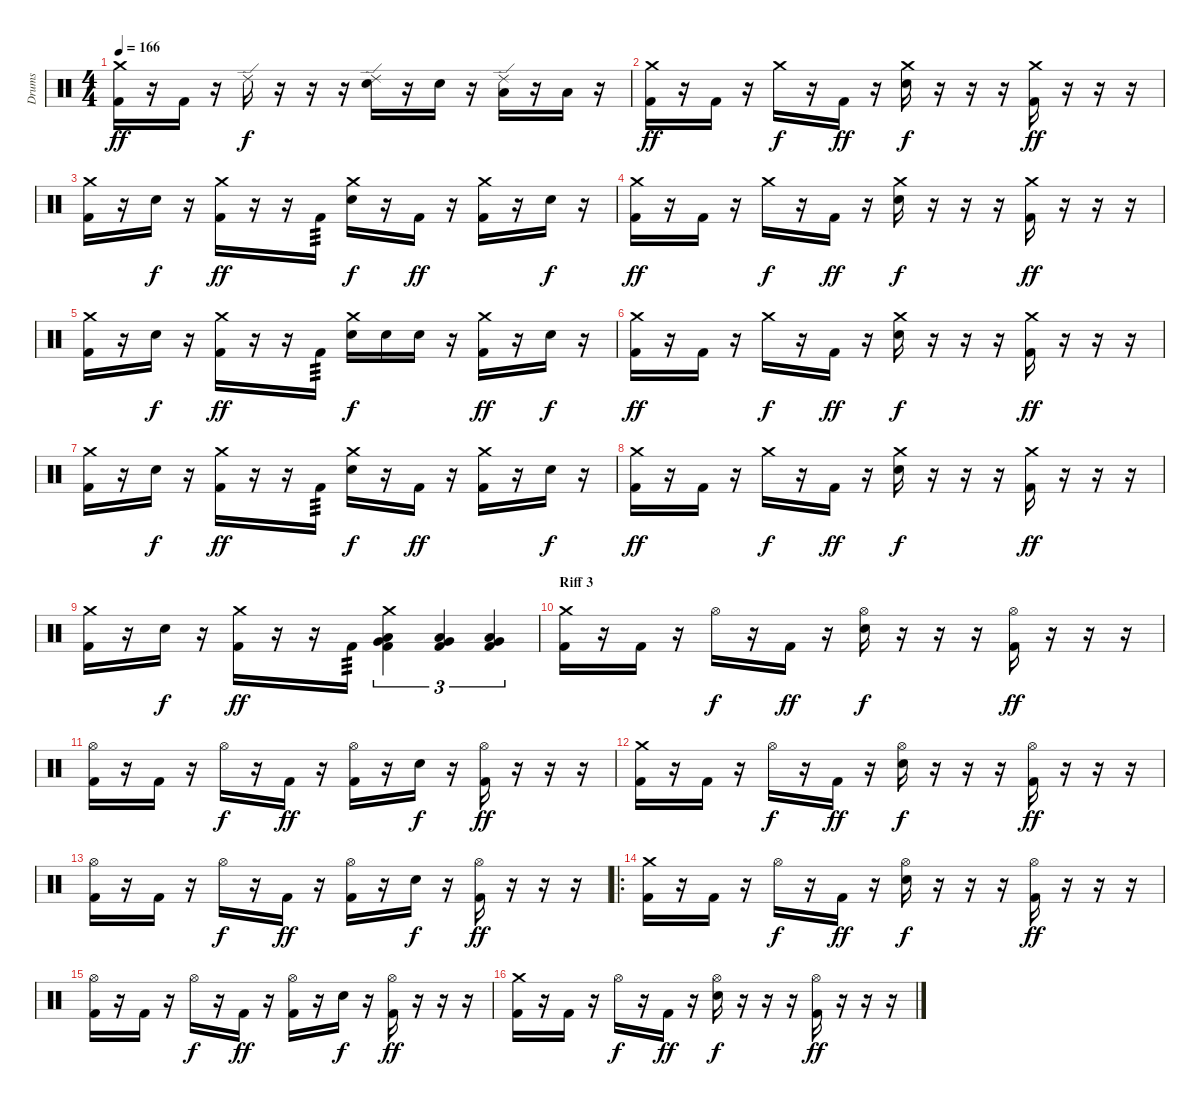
\track ("Drums" "Drums") {instrument percussion}
\staff {score}
\articulation defaults
\ts (4 4)
\tempo 166
\clef neutral
\ks c
("Crash medium (hit)" "Kick (hit) 2").16{dy ff} r.16 "Kick (hit) 2".16 r.16 "Ride (edge) 2".16{dy f} r.16 r.16 r.16 ("Ride (edge) 2" "Electric Snare (hit)").16 r.16 "Electric Snare (hit)".16 r.16 ("Ride (edge) 2" "Low Tom (hit)").16 r.16 "Low Tom (hit)".16 r.16 |
("Crash medium (hit)" "Kick (hit) 2").16{dy ff} r.16 "Kick (hit) 2".16 r.16 "Crash medium (hit)".16{dy f} r.16 "Kick (hit) 2".16{dy ff} r.16 ("Crash medium (hit)" "Electric Snare (hit)").16{dy f} r.16 r.16 r.16 ("Crash medium (hit)" "Kick (hit) 2").16{dy ff} r.16 r.16 r.16 |
("Crash medium (hit)" "Kick (hit) 2").16 r.16 "Electric Snare (hit)".16{dy f} r.16 ("Crash medium (hit)" "Kick (hit) 2").16{dy ff} r.16 r.16 "Kick (hit) 2".16{tp 3} ("Crash medium (hit)" "Electric Snare (hit)").16{dy f} r.16 "Kick (hit) 2".16{dy ff} r.16 ("Crash medium (hit)" "Kick (hit) 2").16 r.16 "Electric Snare (hit)".16{dy f} r.16 |
("Crash medium (hit)" "Kick (hit) 2").16{dy ff} r.16 "Kick (hit) 2".16 r.16 "Crash medium (hit)".16{dy f} r.16 "Kick (hit) 2".16{dy ff} r.16 ("Crash medium (hit)" "Electric Snare (hit)").16{dy f} r.16 r.16 r.16 ("Crash medium (hit)" "Kick (hit) 2").16{dy ff} r.16 r.16 r.16 |
("Crash medium (hit)" "Kick (hit) 2").16 r.16 "Electric Snare (hit)".16{dy f} r.16 ("Crash medium (hit)" "Kick (hit) 2").16{dy ff} r.16 r.16 "Kick (hit) 2".16{tp 3} ("Crash medium (hit)" "Electric Snare (hit)").16{dy f} "Electric Snare (hit)".16 "Electric Snare (hit)".16 r.16 ("Crash medium (hit)" "Kick (hit) 2").16{dy ff} r.16 "Electric Snare (hit)".16{dy f} r.16 |
("Crash medium (hit)" "Kick (hit) 2").16{dy ff} r.16 "Kick (hit) 2".16 r.16 "Crash medium (hit)".16{dy f} r.16 "Kick (hit) 2".16{dy ff} r.16 ("Crash medium (hit)" "Electric Snare (hit)").16{dy f} r.16 r.16 r.16 ("Crash medium (hit)" "Kick (hit) 2").16{dy ff} r.16 r.16 r.16 |
("Crash medium (hit)" "Kick (hit) 2").16 r.16 "Electric Snare (hit)".16{dy f} r.16 ("Crash medium (hit)" "Kick (hit) 2").16{dy ff} r.16 r.16 "Kick (hit) 2".16{tp 3} ("Crash medium (hit)" "Electric Snare (hit)").16{dy f} r.16 "Kick (hit) 2".16{dy ff} r.16 ("Crash medium (hit)" "Kick (hit) 2").16 r.16 "Electric Snare (hit)".16{dy f} r.16 |
("Crash medium (hit)" "Kick (hit) 2").16{dy ff} r.16 "Kick (hit) 2".16 r.16 "Crash medium (hit)".16{dy f} r.16 "Kick (hit) 2".16{dy ff} r.16 ("Crash medium (hit)" "Electric Snare (hit)").16{dy f} r.16 r.16 r.16 ("Crash medium (hit)" "Kick (hit) 2").16{dy ff} r.16 r.16 r.16 |
("Crash medium (hit)" "Kick (hit) 2").16 r.16 "Electric Snare (hit)".16{dy f} r.16 ("Crash medium (hit)" "Kick (hit) 2").16{dy ff} r.16 r.16 "Kick (hit) 2".16{tp 3} ("Crash medium (hit)" "Low Floor Tom (hit)" "Very Low Tom (hit)" "Kick (hit) 2").4{tu (3 2)} ("Low Floor Tom (hit)" "Very Low Tom (hit)" "Kick (hit) 2").4{tu (3 2)} ("Low Floor Tom (hit)" "Very Low Tom (hit)" "Kick (hit) 2").4{tu (3 2)} |
\section ("" "Riff 3")
("Crash medium (hit)" "Kick (hit) 2").16 r.16 "Kick (hit) 2".16 r.16 "Hi-Hat (open)".16{dy f} r.16 "Kick (hit) 2".16{dy ff} r.16 ("Hi-Hat (open)" "Electric Snare (hit)").16{dy f} r.16 r.16 r.16 ("Hi-Hat (open)" "Kick (hit) 2").16{dy ff} r.16 r.16 r.16 |
("Hi-Hat (open)" "Kick (hit) 2").16 r.16 "Kick (hit) 2".16 r.16 "Hi-Hat (open)".16{dy f} r.16 "Kick (hit) 2".16{dy ff} r.16 ("Hi-Hat (open)" "Kick (hit) 2").16 r.16 "Electric Snare (hit)".16{dy f} r.16 ("Hi-Hat (open)" "Kick (hit) 2").16{dy ff} r.16 r.16 r.16 |
("Crash medium (hit)" "Kick (hit) 2").16 r.16 "Kick (hit) 2".16 r.16 "Hi-Hat (open)".16{dy f} r.16 "Kick (hit) 2".16{dy ff} r.16 ("Hi-Hat (open)" "Electric Snare (hit)").16{dy f} r.16 r.16 r.16 ("Hi-Hat (open)" "Kick (hit) 2").16{dy ff} r.16 r.16 r.16 |
("Hi-Hat (open)" "Kick (hit) 2").16 r.16 "Kick (hit) 2".16 r.16 "Hi-Hat (open)".16{dy f} r.16 "Kick (hit) 2".16{dy ff} r.16 ("Hi-Hat (open)" "Kick (hit) 2").16 r.16 "Electric Snare (hit)".16{dy f} r.16 ("Hi-Hat (open)" "Kick (hit) 2").16{dy ff} r.16 r.16 r.16 |
\ro
("Crash medium (hit)" "Kick (hit) 2").16 r.16 "Kick (hit) 2".16 r.16 "Hi-Hat (open)".16{dy f} r.16 "Kick (hit) 2".16{dy ff} r.16 ("Hi-Hat (open)" "Electric Snare (hit)").16{dy f} r.16 r.16 r.16 ("Hi-Hat (open)" "Kick (hit) 2").16{dy ff} r.16 r.16 r.16 |
("Hi-Hat (open)" "Kick (hit) 2").16 r.16 "Kick (hit) 2".16 r.16 "Hi-Hat (open)".16{dy f} r.16 "Kick (hit) 2".16{dy ff} r.16 ("Hi-Hat (open)" "Kick (hit) 2").16 r.16 "Electric Snare (hit)".16{dy f} r.16 ("Hi-Hat (open)" "Kick (hit) 2").16{dy ff} r.16 r.16 r.16 |
("Crash medium (hit)" "Kick (hit) 2").16 r.16 "Kick (hit) 2".16 r.16 "Hi-Hat (open)".16{dy f} r.16 "Kick (hit) 2".16{dy ff} r.16 ("Hi-Hat (open)" "Electric Snare (hit)").16{dy f} r.16 r.16 r.16 ("Hi-Hat (open)" "Kick (hit) 2").16{dy ff} r.16 r.16 r.16
